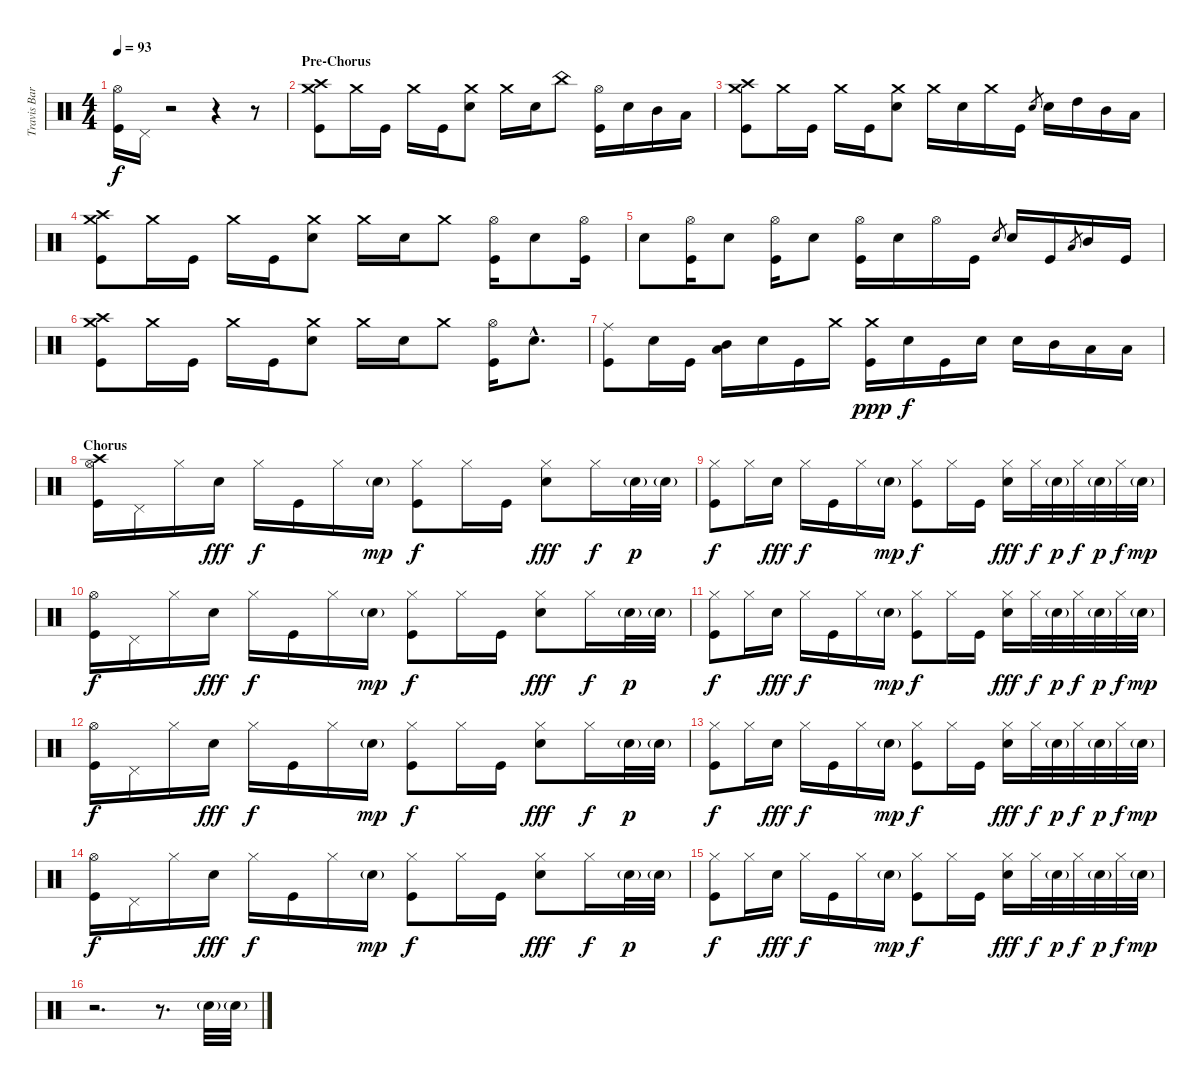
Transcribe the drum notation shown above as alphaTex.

\track ("Travis Barker" "Travis Bar") {instrument percussion}
\staff {score}
\articulation defaults
\ts (4 4)
\tempo 93
\clef neutral
\ks c
("Hi-Hat (open)" "Kick (hit)").16{dy f} "Pedal Hi-Hat (hit)".16 r.2 r.4 r.8 |
\section ("" "Pre-Chorus")
("Crash high (hit)" "Crash medium (hit)" "Kick (hit)").8 "Crash medium (hit)".16 "Kick (hit)".16 "Crash medium (hit)".16 "Kick (hit)".16 ("Crash medium (hit)" "Electric Snare (hit)").8 "Crash medium (hit)".16 "Electric Snare (hit)".16 "China (hit)".8 ("Hi-Hat (open)" "Kick (hit)").16 "Electric Snare (hit)".16 "Mid Tom (hit)".16 "Low Tom (hit)".16 |
("Crash high (hit)" "Crash medium (hit)" "Kick (hit)").8 "Crash medium (hit)".16 "Kick (hit)".16 "Crash medium (hit)".16 "Kick (hit)".16 ("Crash medium (hit)" "Electric Snare (hit)").8 "Crash medium (hit)".16 "Electric Snare (hit)".16 "Crash medium (hit)".16 "Kick (hit)".16 "Electric Snare (hit)".8{gr} "Electric Snare (hit)".16 "High Tom (hit)".16 "Mid Tom (hit)".16 "Low Tom (hit)".16 |
("Crash high (hit)" "Crash medium (hit)" "Kick (hit)").8 "Crash medium (hit)".16 "Kick (hit)".16 "Crash medium (hit)".16 "Kick (hit)".16 ("Crash medium (hit)" "Electric Snare (hit)").8 "Crash medium (hit)".16 "Electric Snare (hit)".16 "Crash medium (hit)".8 ("Hi-Hat (open)" "Kick (hit)").16 "Electric Snare (hit)".8 ("Hi-Hat (open)" "Kick (hit)").16 |
"Electric Snare (hit)".8 ("Hi-Hat (open)" "Kick (hit)").16 "Electric Snare (hit)".8 ("Hi-Hat (open)" "Kick (hit)").16 "Electric Snare (hit)".8 ("Hi-Hat (open)" "Kick (hit)").16 "Electric Snare (hit)".16 "Hi-Hat (open)".16 "Kick (hit)".16 "Electric Snare (hit)".8{gr} "Electric Snare (hit)".16 "Kick (hit)".16 "Low Tom (hit)".8{gr} "Mid Tom (hit)".16 "Kick (hit)".16 |
("Crash high (hit)" "Crash medium (hit)" "Kick (hit)").8 "Crash medium (hit)".16 "Kick (hit)".16 "Crash medium (hit)".16 "Kick (hit)".16 ("Crash medium (hit)" "Electric Snare (hit)").8 "Crash medium (hit)".16 "Electric Snare (hit)".16 "Crash medium (hit)".8 ("Hi-Hat (open)" "Kick (hit)").16 "Electric Snare (hit)"{hac}.8{d} |
("Ride (middle)" "Kick (hit)").8 "Electric Snare (hit)".16 "Kick (hit)".16 ("Mid Tom (hit)" "Low Tom (hit)").16 "Electric Snare (hit)".16 "Kick (hit)".16 "Crash medium (hit)".16 ("Crash medium (hit)" "Kick (hit)").16{dy ppp} "Electric Snare (hit)".16{dy f} "Kick (hit)".16 "Electric Snare (hit)".16 "Electric Snare (hit)".16 "Mid Tom (hit)".16 "Low Tom (hit)".16 "Low Tom (hit)".16 |
\section ("" "Chorus")
("Hi-Hat (open)" "Crash high (hit)" "Kick (hit)").16 "Pedal Hi-Hat (hit)".16 "Hi-Hat (closed)".16 "Electric Snare (hit)".16{dy fff} "Hi-Hat (closed)".16{dy f} "Kick (hit)".16 "Hi-Hat (closed)".16 "Electric Snare (hit)"{g}.16{dy mp} ("Hi-Hat (closed)" "Kick (hit)").8{dy f} "Hi-Hat (closed)".16 "Kick (hit)".16 ("Hi-Hat (closed)" "Electric Snare (hit)").8{dy fff} "Hi-Hat (closed)".16{dy f} "Electric Snare (hit)"{g}.32{dy p} "Electric Snare (hit)"{g}.32 |
("Hi-Hat (closed)" "Kick (hit)").8{dy f} "Hi-Hat (closed)".16 "Electric Snare (hit)".16{dy fff} "Hi-Hat (closed)".16{dy f} "Kick (hit)".16 "Hi-Hat (closed)".16 "Electric Snare (hit)"{g}.16{dy mp} ("Hi-Hat (closed)" "Kick (hit)").8{dy f} "Hi-Hat (closed)".16 "Kick (hit)".16 ("Hi-Hat (closed)" "Electric Snare (hit)").16{dy fff} "Hi-Hat (closed)".32{dy f} "Electric Snare (hit)"{g}.32{dy p} "Hi-Hat (closed)".32{dy f} "Electric Snare (hit)"{g}.32{dy p} "Hi-Hat (closed)".32{dy f} "Electric Snare (hit)"{g}.32{dy mp} |
("Hi-Hat (open)" "Kick (hit)").16{dy f} "Pedal Hi-Hat (hit)".16 "Hi-Hat (closed)".16 "Electric Snare (hit)".16{dy fff} "Hi-Hat (closed)".16{dy f} "Kick (hit)".16 "Hi-Hat (closed)".16 "Electric Snare (hit)"{g}.16{dy mp} ("Hi-Hat (closed)" "Kick (hit)").8{dy f} "Hi-Hat (closed)".16 "Kick (hit)".16 ("Hi-Hat (closed)" "Electric Snare (hit)").8{dy fff} "Hi-Hat (closed)".16{dy f} "Electric Snare (hit)"{g}.32{dy p} "Electric Snare (hit)"{g}.32 |
("Hi-Hat (closed)" "Kick (hit)").8{dy f} "Hi-Hat (closed)".16 "Electric Snare (hit)".16{dy fff} "Hi-Hat (closed)".16{dy f} "Kick (hit)".16 "Hi-Hat (closed)".16 "Electric Snare (hit)"{g}.16{dy mp} ("Hi-Hat (closed)" "Kick (hit)").8{dy f} "Hi-Hat (closed)".16 "Kick (hit)".16 ("Hi-Hat (closed)" "Electric Snare (hit)").16{dy fff} "Hi-Hat (closed)".32{dy f} "Electric Snare (hit)"{g}.32{dy p} "Hi-Hat (closed)".32{dy f} "Electric Snare (hit)"{g}.32{dy p} "Hi-Hat (closed)".32{dy f} "Electric Snare (hit)"{g}.32{dy mp} |
("Hi-Hat (open)" "Kick (hit)").16{dy f} "Pedal Hi-Hat (hit)".16 "Hi-Hat (closed)".16 "Electric Snare (hit)".16{dy fff} "Hi-Hat (closed)".16{dy f} "Kick (hit)".16 "Hi-Hat (closed)".16 "Electric Snare (hit)"{g}.16{dy mp} ("Hi-Hat (closed)" "Kick (hit)").8{dy f} "Hi-Hat (closed)".16 "Kick (hit)".16 ("Hi-Hat (closed)" "Electric Snare (hit)").8{dy fff} "Hi-Hat (closed)".16{dy f} "Electric Snare (hit)"{g}.32{dy p} "Electric Snare (hit)"{g}.32 |
("Hi-Hat (closed)" "Kick (hit)").8{dy f} "Hi-Hat (closed)".16 "Electric Snare (hit)".16{dy fff} "Hi-Hat (closed)".16{dy f} "Kick (hit)".16 "Hi-Hat (closed)".16 "Electric Snare (hit)"{g}.16{dy mp} ("Hi-Hat (closed)" "Kick (hit)").8{dy f} "Hi-Hat (closed)".16 "Kick (hit)".16 ("Hi-Hat (closed)" "Electric Snare (hit)").16{dy fff} "Hi-Hat (closed)".32{dy f} "Electric Snare (hit)"{g}.32{dy p} "Hi-Hat (closed)".32{dy f} "Electric Snare (hit)"{g}.32{dy p} "Hi-Hat (closed)".32{dy f} "Electric Snare (hit)"{g}.32{dy mp} |
("Hi-Hat (open)" "Kick (hit)").16{dy f} "Pedal Hi-Hat (hit)".16 "Hi-Hat (closed)".16 "Electric Snare (hit)".16{dy fff} "Hi-Hat (closed)".16{dy f} "Kick (hit)".16 "Hi-Hat (closed)".16 "Electric Snare (hit)"{g}.16{dy mp} ("Hi-Hat (closed)" "Kick (hit)").8{dy f} "Hi-Hat (closed)".16 "Kick (hit)".16 ("Hi-Hat (closed)" "Electric Snare (hit)").8{dy fff} "Hi-Hat (closed)".16{dy f} "Electric Snare (hit)"{g}.32{dy p} "Electric Snare (hit)"{g}.32 |
("Hi-Hat (closed)" "Kick (hit)").8{dy f} "Hi-Hat (closed)".16 "Electric Snare (hit)".16{dy fff} "Hi-Hat (closed)".16{dy f} "Kick (hit)".16 "Hi-Hat (closed)".16 "Electric Snare (hit)"{g}.16{dy mp} ("Hi-Hat (closed)" "Kick (hit)").8{dy f} "Hi-Hat (closed)".16 "Kick (hit)".16 ("Hi-Hat (closed)" "Electric Snare (hit)").16{dy fff} "Hi-Hat (closed)".32{dy f} "Electric Snare (hit)"{g}.32{dy p} "Hi-Hat (closed)".32{dy f} "Electric Snare (hit)"{g}.32{dy p} "Hi-Hat (closed)".32{dy f} "Electric Snare (hit)"{g}.32{dy mp} |
r.2{d} r.8{d} "Electric Snare (hit)"{g}.32 "Electric Snare (hit)"{g}.32
